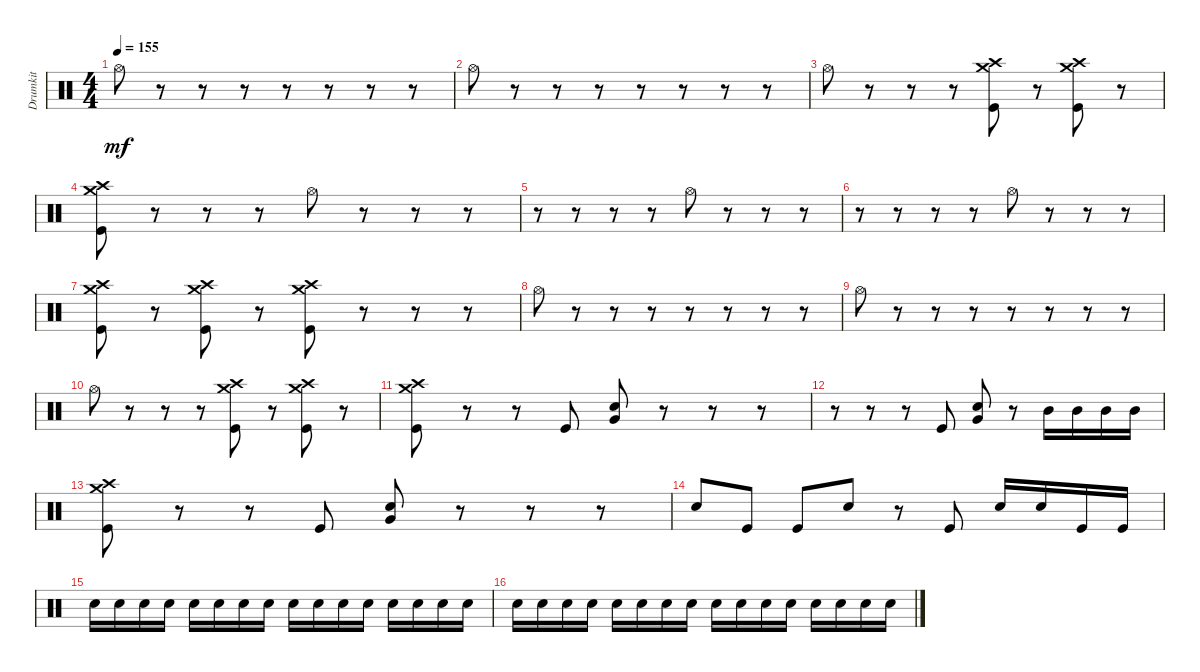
\track ("Drumkit" "Drumkit") {instrument percussion}
\staff {score}
\articulation defaults
\ts (4 4)
\tempo 155
\clef neutral
\ks c "Hi-Hat (open)".8{dy mf}
r.8 r.8 r.8 r.8 r.8 r.8 r.8 |
"Hi-Hat (open)".8 r.8 r.8 r.8 r.8 r.8 r.8 r.8 |
"Hi-Hat (open)".8 r.8 r.8 r.8 ("Kick (hit)" "Crash high (hit)" "Crash medium (hit)").8 r.8 ("Kick (hit)" "Crash high (hit)" "Crash medium (hit)").8 r.8 |
("Kick (hit)" "Crash high (hit)" "Crash medium (hit)").8 r.8 r.8 r.8 "Hi-Hat (open)".8 r.8 r.8 r.8 |
r.8 r.8 r.8 r.8 "Hi-Hat (open)".8 r.8 r.8 r.8 |
r.8 r.8 r.8 r.8 "Hi-Hat (open)".8 r.8 r.8 r.8 |
("Kick (hit)" "Crash high (hit)" "Crash medium (hit)").8 r.8 ("Kick (hit)" "Crash high (hit)" "Crash medium (hit)").8 r.8 ("Kick (hit)" "Crash high (hit)" "Crash medium (hit)").8 r.8 r.8 r.8 |
"Hi-Hat (open)".8 r.8 r.8 r.8 r.8 r.8 r.8 r.8 |
"Hi-Hat (open)".8 r.8 r.8 r.8 r.8 r.8 r.8 r.8 |
"Hi-Hat (open)".8 r.8 r.8 r.8 ("Kick (hit)" "Crash high (hit)" "Crash medium (hit)").8 r.8 ("Kick (hit)" "Crash high (hit)" "Crash medium (hit)").8 r.8 |
("Kick (hit)" "Crash high (hit)" "Crash medium (hit)").8 r.8 r.8 "Kick (hit)".8 ("Snare (hit) 2" "Very Low Tom (hit)").8 r.8 r.8 r.8 |
r.8 r.8 r.8 "Kick (hit)".8 ("Snare (hit) 2" "Very Low Tom (hit)").8 r.8 "Mid Tom (hit)".16 "Mid Tom (hit)".16 "Mid Tom (hit)".16 "Mid Tom (hit)".16 |
("Kick (hit)" "Crash high (hit)" "Crash medium (hit)").8 r.8 r.8 "Kick (hit)".8 ("Snare (hit) 2" "Very Low Tom (hit)").8 r.8 r.8 r.8 |
"Snare (hit) 2".8 "Kick (hit)".8 "Kick (hit)".8 "Snare (hit) 2".8 r.8 "Kick (hit)".8 "Snare (hit) 2".16 "Snare (hit) 2".16 "Kick (hit)".16 "Kick (hit)".16 |
"Snare (hit) 2".16 "Snare (hit) 2".16 "Snare (hit) 2".16 "Snare (hit) 2".16 "Snare (hit) 2".16 "Snare (hit) 2".16 "Snare (hit) 2".16 "Snare (hit) 2".16 "Snare (hit) 2".16 "Snare (hit) 2".16 "Snare (hit) 2".16 "Snare (hit) 2".16 "Snare (hit) 2".16 "Snare (hit) 2".16 "Snare (hit) 2".16 "Snare (hit) 2".16 |
"Snare (hit) 2".16 "Snare (hit) 2".16 "Snare (hit) 2".16 "Snare (hit) 2".16 "Snare (hit) 2".16 "Snare (hit) 2".16 "Snare (hit) 2".16 "Snare (hit) 2".16 "Snare (hit) 2".16 "Snare (hit) 2".16 "Snare (hit) 2".16 "Snare (hit) 2".16 "Snare (hit) 2".16 "Snare (hit) 2".16 "Snare (hit) 2".16 "Snare (hit) 2".16
